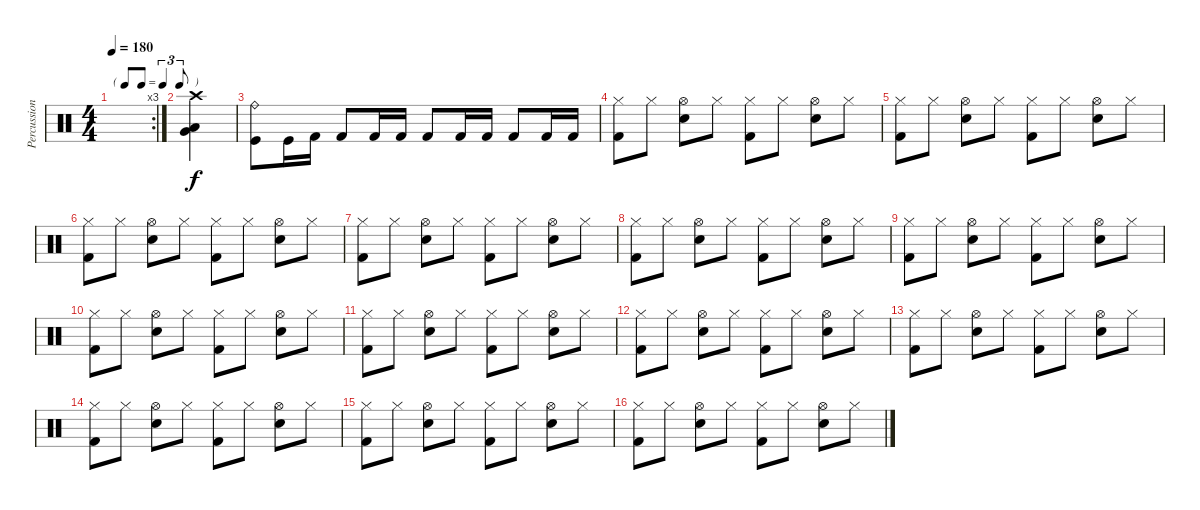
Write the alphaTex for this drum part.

\track ("Percussions" "Percussion") {instrument percussion}
\staff {score}
\articulation defaults
\rc 3
\ts (4 4)
\tf triplet8th
\tempo 180
\clef neutral
\ks c
|
("Crash high (hit)" "Low Floor Tom (hit)" "Very Low Tom (hit)").4 |
("Ride (bell)" "Kick (hit)").8 "Kick (hit)".16 "Kick (hit) 2".16 "Kick (hit) 2".8 "Kick (hit) 2".16 "Kick (hit) 2".16 "Kick (hit) 2".8 "Kick (hit) 2".16 "Kick (hit) 2".16 "Kick (hit) 2".8 "Kick (hit) 2".16 "Kick (hit) 2".16 |
("Hi-Hat (closed)" "Kick (hit) 2").8 "Hi-Hat (closed)".8 ("Hi-Hat (open)" "Snare (hit) 2").8 "Hi-Hat (closed)".8 ("Hi-Hat (closed)" "Kick (hit) 2").8 "Hi-Hat (closed)".8 ("Hi-Hat (open)" "Snare (hit) 2").8 "Hi-Hat (closed)".8 |
("Hi-Hat (closed)" "Kick (hit) 2").8 "Hi-Hat (closed)".8 ("Hi-Hat (open)" "Snare (hit) 2").8 "Hi-Hat (closed)".8 ("Hi-Hat (closed)" "Kick (hit) 2").8 "Hi-Hat (closed)".8 ("Hi-Hat (open)" "Snare (hit) 2").8 "Hi-Hat (closed)".8 |
("Hi-Hat (closed)" "Kick (hit) 2").8 "Hi-Hat (closed)".8 ("Hi-Hat (open)" "Snare (hit) 2").8 "Hi-Hat (closed)".8 ("Hi-Hat (closed)" "Kick (hit) 2").8 "Hi-Hat (closed)".8 ("Hi-Hat (open)" "Snare (hit) 2").8 "Hi-Hat (closed)".8 |
("Hi-Hat (closed)" "Kick (hit) 2").8 "Hi-Hat (closed)".8 ("Hi-Hat (open)" "Snare (hit) 2").8 "Hi-Hat (closed)".8 ("Hi-Hat (closed)" "Kick (hit) 2").8 "Hi-Hat (closed)".8 ("Hi-Hat (open)" "Snare (hit) 2").8 "Hi-Hat (closed)".8 |
("Hi-Hat (closed)" "Kick (hit) 2").8 "Hi-Hat (closed)".8 ("Hi-Hat (open)" "Snare (hit) 2").8 "Hi-Hat (closed)".8 ("Hi-Hat (closed)" "Kick (hit) 2").8 "Hi-Hat (closed)".8 ("Hi-Hat (open)" "Snare (hit) 2").8 "Hi-Hat (closed)".8 |
("Hi-Hat (closed)" "Kick (hit) 2").8 "Hi-Hat (closed)".8 ("Hi-Hat (open)" "Snare (hit) 2").8 "Hi-Hat (closed)".8 ("Hi-Hat (closed)" "Kick (hit) 2").8 "Hi-Hat (closed)".8 ("Hi-Hat (open)" "Snare (hit) 2").8 "Hi-Hat (closed)".8 |
("Hi-Hat (closed)" "Kick (hit) 2").8 "Hi-Hat (closed)".8 ("Hi-Hat (open)" "Snare (hit) 2").8 "Hi-Hat (closed)".8 ("Hi-Hat (closed)" "Kick (hit) 2").8 "Hi-Hat (closed)".8 ("Hi-Hat (open)" "Snare (hit) 2").8 "Hi-Hat (closed)".8 |
("Hi-Hat (closed)" "Kick (hit) 2").8 "Hi-Hat (closed)".8 ("Hi-Hat (open)" "Snare (hit) 2").8 "Hi-Hat (closed)".8 ("Hi-Hat (closed)" "Kick (hit) 2").8 "Hi-Hat (closed)".8 ("Hi-Hat (open)" "Snare (hit) 2").8 "Hi-Hat (closed)".8 |
("Hi-Hat (closed)" "Kick (hit) 2").8 "Hi-Hat (closed)".8 ("Hi-Hat (open)" "Snare (hit) 2").8 "Hi-Hat (closed)".8 ("Hi-Hat (closed)" "Kick (hit) 2").8 "Hi-Hat (closed)".8 ("Hi-Hat (open)" "Snare (hit) 2").8 "Hi-Hat (closed)".8 |
("Hi-Hat (closed)" "Kick (hit) 2").8 "Hi-Hat (closed)".8 ("Hi-Hat (open)" "Snare (hit) 2").8 "Hi-Hat (closed)".8 ("Hi-Hat (closed)" "Kick (hit) 2").8 "Hi-Hat (closed)".8 ("Hi-Hat (open)" "Snare (hit) 2").8 "Hi-Hat (closed)".8 |
("Hi-Hat (closed)" "Kick (hit) 2").8 "Hi-Hat (closed)".8 ("Hi-Hat (open)" "Snare (hit) 2").8 "Hi-Hat (closed)".8 ("Hi-Hat (closed)" "Kick (hit) 2").8 "Hi-Hat (closed)".8 ("Hi-Hat (open)" "Snare (hit) 2").8 "Hi-Hat (closed)".8 |
("Hi-Hat (closed)" "Kick (hit) 2").8 "Hi-Hat (closed)".8 ("Hi-Hat (open)" "Snare (hit) 2").8 "Hi-Hat (closed)".8 ("Hi-Hat (closed)" "Kick (hit) 2").8 "Hi-Hat (closed)".8 ("Hi-Hat (open)" "Snare (hit) 2").8 "Hi-Hat (closed)".8 |
("Hi-Hat (closed)" "Kick (hit) 2").8 "Hi-Hat (closed)".8 ("Hi-Hat (open)" "Snare (hit) 2").8 "Hi-Hat (closed)".8 ("Hi-Hat (closed)" "Kick (hit) 2").8 "Hi-Hat (closed)".8 ("Hi-Hat (open)" "Snare (hit) 2").8 "Hi-Hat (closed)".8
